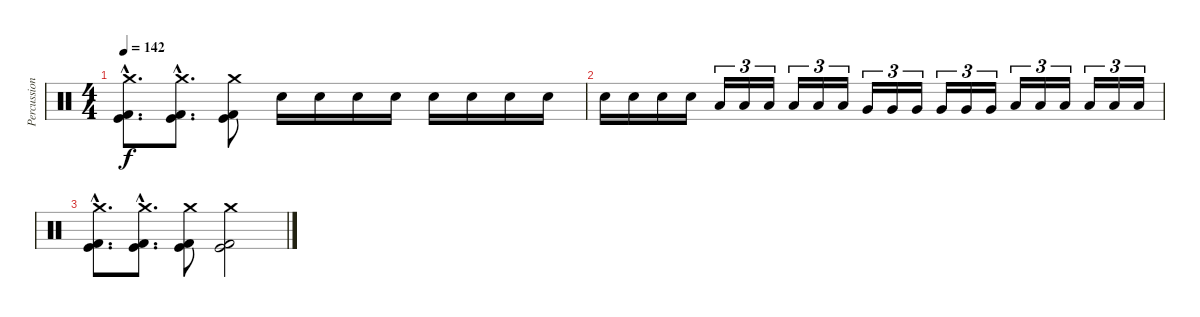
\track ("Percussions" "Percussion") {instrument percussion}
\staff {score}
\articulation defaults
\ts (4 4)
\tempo 142
\clef neutral
\ks c
("Crash medium (hit)"{hac} "Kick (hit)"{hac} "Kick (hit) 2"{hac}).8{d dy f} ("Crash medium (hit)"{hac} "Kick (hit)"{hac} "Kick (hit) 2"{hac}).8{d} ("Crash medium (hit)" "Kick (hit)" "Kick (hit) 2").8 "Electric Snare (hit)".16 "Electric Snare (hit)".16 "Electric Snare (hit)".16 "Electric Snare (hit)".16 "Electric Snare (hit)".16 "Electric Snare (hit)".16 "Electric Snare (hit)".16 "Electric Snare (hit)".16 |
"Electric Snare (hit)".16 "Electric Snare (hit)".16 "Electric Snare (hit)".16 "Electric Snare (hit)".16 "Low Tom (hit)".16{tu (3 2)} "Low Tom (hit)".16{tu (3 2)} "Low Tom (hit)".16{tu (3 2)} "Low Tom (hit)".16{tu (3 2)} "Low Tom (hit)".16{tu (3 2)} "Low Tom (hit)".16{tu (3 2)} "Very Low Tom (hit)".16{tu (3 2)} "Very Low Tom (hit)".16{tu (3 2)} "Very Low Tom (hit)".16{tu (3 2)} "Very Low Tom (hit)".16{tu (3 2)} "Very Low Tom (hit)".16{tu (3 2)} "Very Low Tom (hit)".16{tu (3 2)} "Low Floor Tom (hit)".16{tu (3 2)} "Low Floor Tom (hit)".16{tu (3 2)} "Low Floor Tom (hit)".16{tu (3 2)} "Low Floor Tom (hit)".16{tu (3 2)} "Low Floor Tom (hit)".16{tu (3 2)} "Low Floor Tom (hit)".16{tu (3 2)} |
("Crash medium (hit)"{hac} "Kick (hit)"{hac} "Kick (hit) 2"{hac}).8{d} ("Crash medium (hit)"{hac} "Kick (hit)"{hac} "Kick (hit) 2"{hac}).8{d} ("Crash medium (hit)" "Kick (hit)" "Kick (hit) 2").8 ("Crash medium (hit)" "Kick (hit)" "Kick (hit) 2").2
